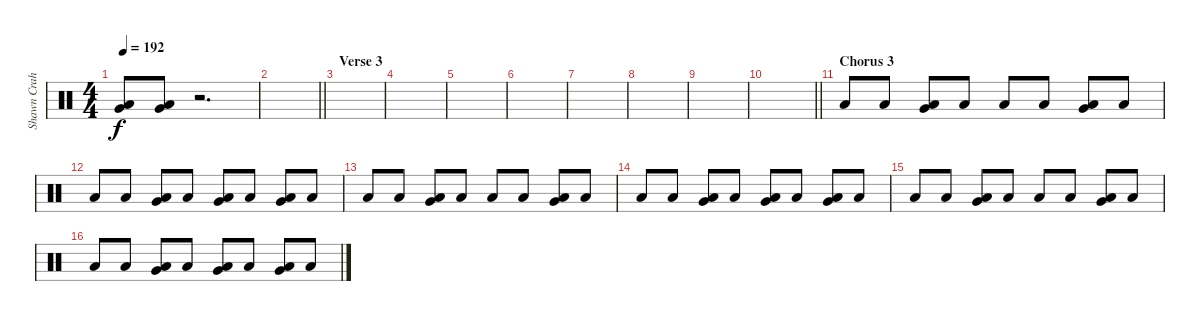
\track ("Shawn Crahan" "Shawn Crah") {instrument percussion}
\staff {score}
\articulation defaults
\ts (4 4)
\tempo 192
\clef neutral
\ks c
("Very Low Tom (hit)" "Low Floor Tom (hit)").8{dy f} ("Very Low Tom (hit)" "Low Floor Tom (hit)").8 r.2{d} |
\barLineRight lightlight
|
\section ("" "Verse 3")
|
|
|
|
|
|
|
\barLineRight lightlight
|
\section ("" "Chorus 3")
"Low Floor Tom (hit)".8 "Low Floor Tom (hit)".8 ("Very Low Tom (hit)" "Low Floor Tom (hit)").8 "Low Floor Tom (hit)".8 "Low Floor Tom (hit)".8 "Low Floor Tom (hit)".8 ("Very Low Tom (hit)" "Low Floor Tom (hit)").8 "Low Floor Tom (hit)".8 |
"Low Floor Tom (hit)".8 "Low Floor Tom (hit)".8 ("Very Low Tom (hit)" "Low Floor Tom (hit)").8 "Low Floor Tom (hit)".8 ("Very Low Tom (hit)" "Low Floor Tom (hit)").8 "Low Floor Tom (hit)".8 ("Very Low Tom (hit)" "Low Floor Tom (hit)").8 "Low Floor Tom (hit)".8 |
"Low Floor Tom (hit)".8 "Low Floor Tom (hit)".8 ("Very Low Tom (hit)" "Low Floor Tom (hit)").8 "Low Floor Tom (hit)".8 "Low Floor Tom (hit)".8 "Low Floor Tom (hit)".8 ("Very Low Tom (hit)" "Low Floor Tom (hit)").8 "Low Floor Tom (hit)".8 |
"Low Floor Tom (hit)".8 "Low Floor Tom (hit)".8 ("Very Low Tom (hit)" "Low Floor Tom (hit)").8 "Low Floor Tom (hit)".8 ("Very Low Tom (hit)" "Low Floor Tom (hit)").8 "Low Floor Tom (hit)".8 ("Very Low Tom (hit)" "Low Floor Tom (hit)").8 "Low Floor Tom (hit)".8 |
"Low Floor Tom (hit)".8 "Low Floor Tom (hit)".8 ("Very Low Tom (hit)" "Low Floor Tom (hit)").8 "Low Floor Tom (hit)".8 "Low Floor Tom (hit)".8 "Low Floor Tom (hit)".8 ("Very Low Tom (hit)" "Low Floor Tom (hit)").8 "Low Floor Tom (hit)".8 |
"Low Floor Tom (hit)".8 "Low Floor Tom (hit)".8 ("Very Low Tom (hit)" "Low Floor Tom (hit)").8 "Low Floor Tom (hit)".8 ("Very Low Tom (hit)" "Low Floor Tom (hit)").8 "Low Floor Tom (hit)".8 ("Very Low Tom (hit)" "Low Floor Tom (hit)").8 "Low Floor Tom (hit)".8
